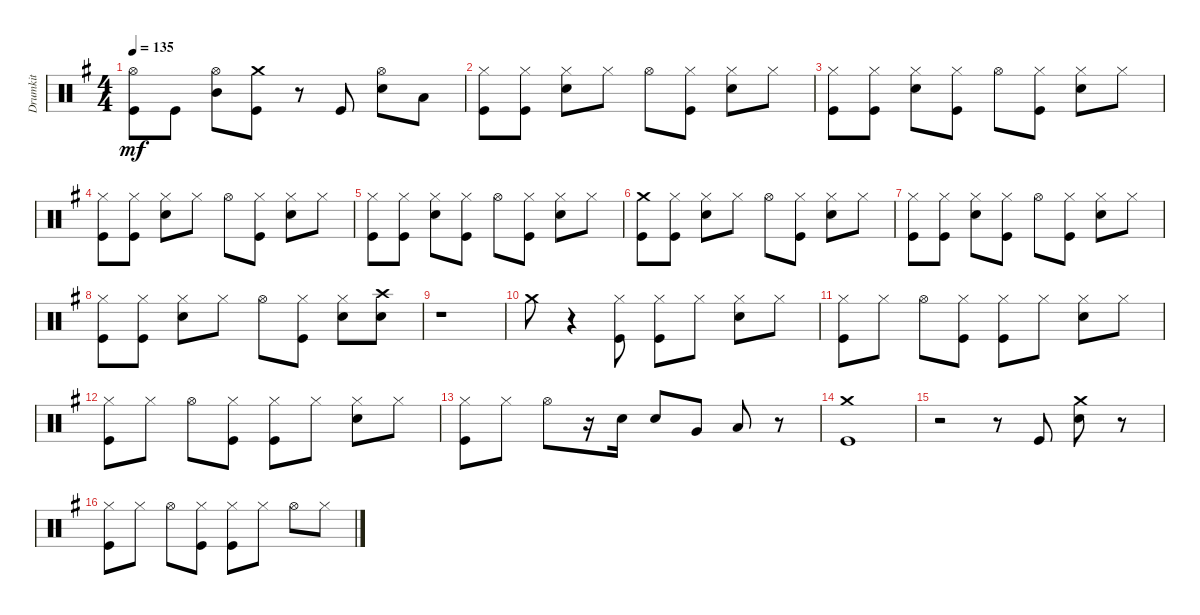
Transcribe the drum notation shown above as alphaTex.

\track ("Drumkit" "Drumkit") {instrument percussion}
\staff {score}
\articulation defaults
\ts (4 4)
\tempo 135
\clef neutral
\ks g
("Hi-Hat (open)" "Kick (hit)").8{dy mf} "Kick (hit)".8 ("Hi-Hat (open)" "Mid Tom (hit)").8 ("Kick (hit)" "Crash medium (hit)").8 r.8 "Kick (hit)".8 ("Hi-Hat (open)" "Snare (hit) 2").8 "Low Tom (hit)".8 |
("Hi-Hat (closed)" "Kick (hit)").8 ("Hi-Hat (closed)" "Kick (hit)").8 ("Hi-Hat (closed)" "Snare (hit) 2").8 "Hi-Hat (closed)".8 "Hi-Hat (open)".8 ("Hi-Hat (closed)" "Kick (hit)").8 ("Hi-Hat (closed)" "Snare (hit) 2").8 "Hi-Hat (closed)".8 |
("Hi-Hat (closed)" "Kick (hit)").8 ("Hi-Hat (closed)" "Kick (hit)").8 ("Hi-Hat (closed)" "Snare (hit) 2").8 ("Hi-Hat (closed)" "Kick (hit)").8 "Hi-Hat (open)".8 ("Hi-Hat (closed)" "Kick (hit)").8 ("Hi-Hat (closed)" "Snare (hit) 2").8 "Hi-Hat (closed)".8 |
("Hi-Hat (closed)" "Kick (hit)").8 ("Hi-Hat (closed)" "Kick (hit)").8 ("Hi-Hat (closed)" "Snare (hit) 2").8 "Hi-Hat (closed)".8 "Hi-Hat (open)".8 ("Hi-Hat (closed)" "Kick (hit)").8 ("Hi-Hat (closed)" "Snare (hit) 2").8 "Hi-Hat (closed)".8 |
("Hi-Hat (closed)" "Kick (hit)").8 ("Hi-Hat (closed)" "Kick (hit)").8 ("Hi-Hat (closed)" "Snare (hit) 2").8 ("Hi-Hat (closed)" "Kick (hit)").8 "Hi-Hat (open)".8 ("Hi-Hat (closed)" "Kick (hit)").8 ("Hi-Hat (closed)" "Snare (hit) 2").8 "Hi-Hat (closed)".8 |
("Kick (hit)" "Crash medium (hit)").8 ("Hi-Hat (closed)" "Kick (hit)").8 ("Hi-Hat (closed)" "Snare (hit) 2").8 "Hi-Hat (closed)".8 "Hi-Hat (open)".8 ("Hi-Hat (closed)" "Kick (hit)").8 ("Hi-Hat (closed)" "Snare (hit) 2").8 "Hi-Hat (closed)".8 |
("Hi-Hat (closed)" "Kick (hit)").8 ("Hi-Hat (closed)" "Kick (hit)").8 ("Hi-Hat (closed)" "Snare (hit) 2").8 ("Hi-Hat (closed)" "Kick (hit)").8 "Hi-Hat (open)".8 ("Hi-Hat (closed)" "Kick (hit)").8 ("Hi-Hat (closed)" "Snare (hit) 2").8 "Hi-Hat (closed)".8 |
("Hi-Hat (closed)" "Kick (hit)").8 ("Hi-Hat (closed)" "Kick (hit)").8 ("Hi-Hat (closed)" "Snare (hit) 2").8 "Hi-Hat (closed)".8 "Hi-Hat (open)".8 ("Hi-Hat (closed)" "Kick (hit)").8 ("Hi-Hat (closed)" "Snare (hit) 2").8 ("Snare (hit) 2" "Crash high (hit)").8 |
r.1 |
"Crash medium (hit)".8 r.4 ("Hi-Hat (closed)" "Kick (hit)").8 ("Hi-Hat (closed)" "Kick (hit)").8 "Hi-Hat (closed)".8 ("Hi-Hat (closed)" "Snare (hit) 2").8 "Hi-Hat (closed)".8 |
("Hi-Hat (closed)" "Kick (hit)").8 "Hi-Hat (closed)".8 "Hi-Hat (open)".8 ("Hi-Hat (closed)" "Kick (hit)").8 ("Hi-Hat (closed)" "Kick (hit)").8 "Hi-Hat (closed)".8 ("Hi-Hat (closed)" "Snare (hit) 2").8 "Hi-Hat (closed)".8 |
("Hi-Hat (closed)" "Kick (hit)").8 "Hi-Hat (closed)".8 "Hi-Hat (open)".8 ("Hi-Hat (closed)" "Kick (hit)").8 ("Hi-Hat (closed)" "Kick (hit)").8 "Hi-Hat (closed)".8 ("Hi-Hat (closed)" "Snare (hit) 2").8 "Hi-Hat (closed)".8 |
("Hi-Hat (closed)" "Kick (hit)").8 "Hi-Hat (closed)".8 "Hi-Hat (open)".8 r.16 "Snare (hit) 2".16 "Snare (hit) 2".8 "Very Low Tom (hit)".8 "Low Floor Tom (hit)".8 r.8 |
("Crash medium (hit)" "Kick (hit)").1 |
r.2 r.8 "Kick (hit)".8 ("Snare (hit) 2" "Crash medium (hit)").8 r.8 |
("Hi-Hat (closed)" "Kick (hit)").8 "Hi-Hat (closed)".8 "Hi-Hat (open)".8 ("Hi-Hat (closed)" "Kick (hit)").8 ("Hi-Hat (closed)" "Kick (hit)").8 "Hi-Hat (closed)".8 "Hi-Hat (open)".8 "Hi-Hat (closed)".8
